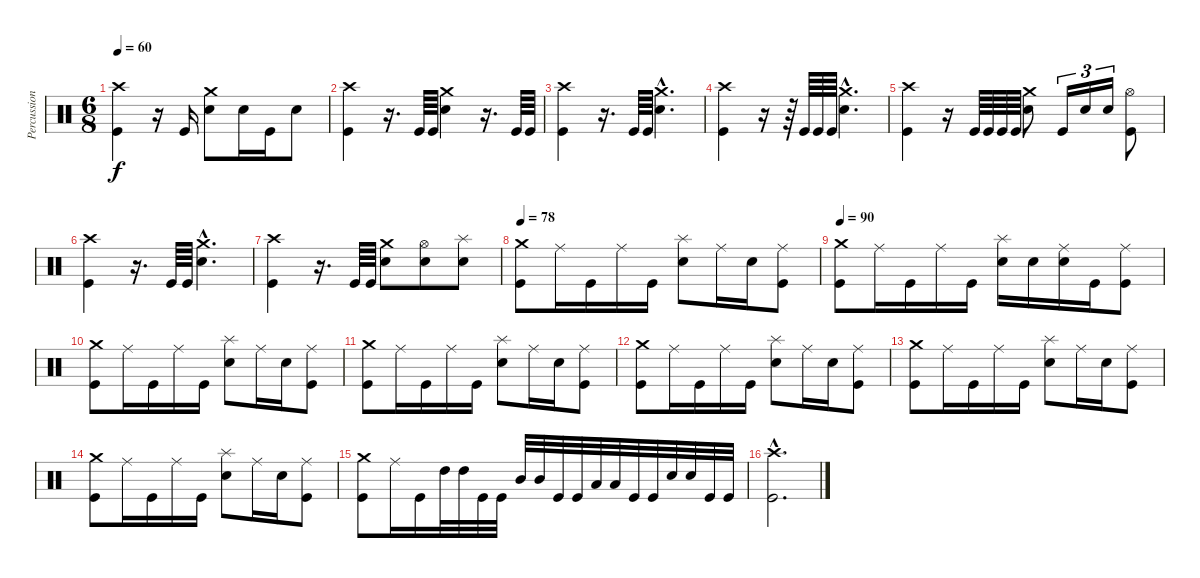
\track ("Percussions" "Percussion") {instrument percussion}
\staff {score}
\articulation defaults
\ts (6 8)
\tempo 60
\clef neutral
\ks c
("Crash high (hit)" "Kick (hit)").4{dy f} r.16 "Kick (hit)".16 ("Crash medium (hit)" "Snare (hit) 2").8 "Snare (hit) 2".16 "Kick (hit)".16 "Snare (hit) 2".8 |
("Crash high (hit)" "Kick (hit)").4 r.16{d} "Kick (hit)".64 "Kick (hit)".64 ("Crash medium (hit)" "Snare (hit) 2").4 r.16{d} "Kick (hit)".64 "Kick (hit)".64 |
("Crash high (hit)" "Kick (hit)").4 r.16{d} "Kick (hit)".64 "Kick (hit)".64 ("Crash medium (hit)"{hac} "Snare (hit) 2"{hac}).4{d} |
("Crash high (hit)" "Kick (hit)").4 r.16 r.64 "Kick (hit)".64 "Kick (hit)".64 "Kick (hit)".64 ("Crash medium (hit)"{hac} "Snare (hit) 2"{hac}).4{d} |
("Crash high (hit)" "Kick (hit)").4 r.16 "Kick (hit)".64 "Kick (hit)".64 "Kick (hit)".64 "Kick (hit)".64 ("Crash medium (hit)" "Snare (hit) 2").8 "Kick (hit)".16{tu (3 2)} "Snare (hit) 2".16{tu (3 2)} "Snare (hit) 2".16{tu (3 2)} ("Hi-Hat (open)" "Kick (hit)").8 |
("Crash high (hit)" "Kick (hit)").4 r.16{d} "Kick (hit)".64 "Kick (hit)".64 ("Crash medium (hit)"{hac} "Snare (hit) 2"{hac}).4{d} |
("Crash high (hit)" "Kick (hit)").4 r.16{d} "Kick (hit)".64 "Kick (hit)".64 ("Crash medium (hit)" "Snare (hit) 2").8 ("Hi-Hat (open)" "Snare (hit) 2").8 ("Splash (hit)" "Snare (hit) 2").8 |
\tempo 78
("Crash medium (hit)" "Kick (hit)").8 "Ride (middle)".16 "Kick (hit)".16 "Ride (middle)".16 "Kick (hit)".16 ("Splash (hit)" "Snare (hit) 2").8 "Ride (middle)".16 "Snare (hit) 2".16 ("Ride (middle)" "Kick (hit)").8 |
\tempo 90
("Crash medium (hit)" "Kick (hit)").8 "Ride (middle)".16 "Kick (hit)".16 "Ride (middle)".16 "Kick (hit)".16 ("Splash (hit)" "Snare (hit) 2").16 "Snare (hit) 2".16 ("Ride (middle)" "Snare (hit) 2").16 "Kick (hit)".16 ("Ride (middle)" "Kick (hit)").8 |
("Crash medium (hit)" "Kick (hit)").8 "Ride (middle)".16 "Kick (hit)".16 "Ride (middle)".16 "Kick (hit)".16 ("Splash (hit)" "Snare (hit) 2").8 "Ride (middle)".16 "Snare (hit) 2".16 ("Ride (middle)" "Kick (hit)").8 |
("Crash medium (hit)" "Kick (hit)").8 "Ride (middle)".16 "Kick (hit)".16 "Ride (middle)".16 "Kick (hit)".16 ("Splash (hit)" "Snare (hit) 2").8 "Ride (middle)".16 "Snare (hit) 2".16 ("Ride (middle)" "Kick (hit)").8 |
("Crash medium (hit)" "Kick (hit)").8 "Ride (middle)".16 "Kick (hit)".16 "Ride (middle)".16 "Kick (hit)".16 ("Splash (hit)" "Snare (hit) 2").8 "Ride (middle)".16 "Snare (hit) 2".16 ("Ride (middle)" "Kick (hit)").8 |
("Crash medium (hit)" "Kick (hit)").8 "Ride (middle)".16 "Kick (hit)".16 "Ride (middle)".16 "Kick (hit)".16 ("Splash (hit)" "Snare (hit) 2").8 "Ride (middle)".16 "Snare (hit) 2".16 ("Ride (middle)" "Kick (hit)").8 |
("Crash medium (hit)" "Kick (hit)").8 "Ride (middle)".16 "Kick (hit)".16 "Ride (middle)".16 "Kick (hit)".16 ("Splash (hit)" "Snare (hit) 2").8 "Ride (middle)".16 "Snare (hit) 2".16 ("Ride (middle)" "Kick (hit)").8 |
("Crash medium (hit)" "Kick (hit)").8 "Ride (middle)".16 "Kick (hit)".16 "High Tom (hit)".32 "High Tom (hit)".32 "Kick (hit)".32 "Kick (hit)".32 "Mid Tom (hit)".32 "Mid Tom (hit)".32 "Kick (hit)".32 "Kick (hit)".32 "Low Tom (hit)".32 "Low Tom (hit)".32 "Kick (hit)".32 "Kick (hit)".32 "Snare (hit) 2".32 "Snare (hit) 2".32 "Kick (hit)".32 "Kick (hit)".32 |
("Crash high (hit)"{hac} "Kick (hit)"{hac}).2{d}
